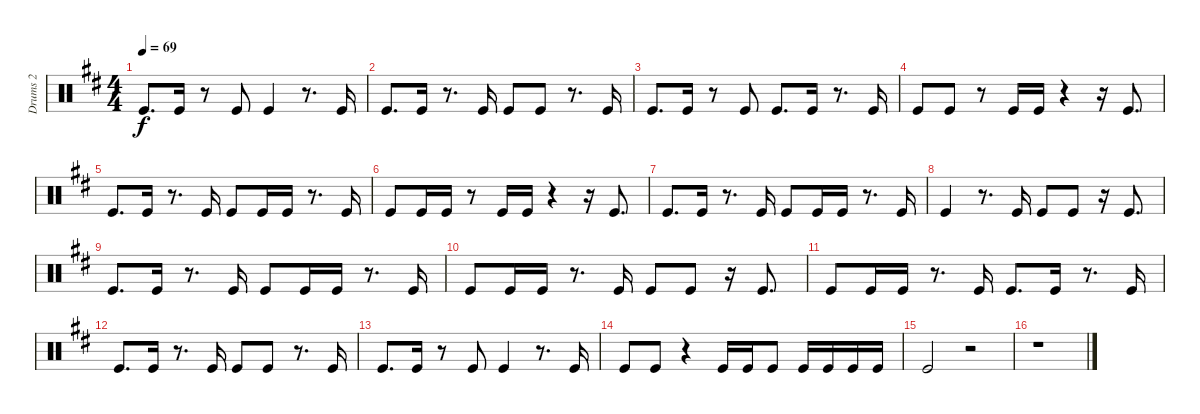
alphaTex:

\track ("Drums 2" "Drums 2") {instrument percussion}
\staff {score}
\articulation defaults
\ts (4 4)
\tempo 69
\clef neutral
\ks d "Kick (hit)".8{d dy f} "Kick (hit)".16
r.8 "Kick (hit)".8 "Kick (hit)".4 r.8{d} "Kick (hit)".16 |
"Kick (hit)".8{d} "Kick (hit)".16 r.8{d} "Kick (hit)".16 "Kick (hit)".8 "Kick (hit)".8 r.8{d} "Kick (hit)".16 |
"Kick (hit)".8{d} "Kick (hit)".16 r.8 "Kick (hit)".8 "Kick (hit)".8{d} "Kick (hit)".16 r.8{d} "Kick (hit)".16 |
"Kick (hit)".8 "Kick (hit)".8 r.8 "Kick (hit)".16 "Kick (hit)".16 r.4 r.16 "Kick (hit)".8{d} |
"Kick (hit)".8{d} "Kick (hit)".16 r.8{d} "Kick (hit)".16 "Kick (hit)".8 "Kick (hit)".16 "Kick (hit)".16 r.8{d} "Kick (hit)".16 |
"Kick (hit)".8 "Kick (hit)".16 "Kick (hit)".16 r.8 "Kick (hit)".16 "Kick (hit)".16 r.4 r.16 "Kick (hit)".8{d} |
"Kick (hit)".8{d} "Kick (hit)".16 r.8{d} "Kick (hit)".16 "Kick (hit)".8 "Kick (hit)".16 "Kick (hit)".16 r.8{d} "Kick (hit)".16 |
"Kick (hit)".4 r.8{d} "Kick (hit)".16 "Kick (hit)".8 "Kick (hit)".8 r.16 "Kick (hit)".8{d} |
"Kick (hit)".8{d} "Kick (hit)".16 r.8{d} "Kick (hit)".16 "Kick (hit)".8 "Kick (hit)".16 "Kick (hit)".16 r.8{d} "Kick (hit)".16 |
"Kick (hit)".8 "Kick (hit)".16 "Kick (hit)".16 r.8{d} "Kick (hit)".16 "Kick (hit)".8 "Kick (hit)".8 r.16 "Kick (hit)".8{d} |
"Kick (hit)".8 "Kick (hit)".16 "Kick (hit)".16 r.8{d} "Kick (hit)".16 "Kick (hit)".8{d} "Kick (hit)".16 r.8{d} "Kick (hit)".16 |
"Kick (hit)".8{d} "Kick (hit)".16 r.8{d} "Kick (hit)".16 "Kick (hit)".8 "Kick (hit)".8 r.8{d} "Kick (hit)".16 |
"Kick (hit)".8{d} "Kick (hit)".16 r.8 "Kick (hit)".8 "Kick (hit)".4 r.8{d} "Kick (hit)".16 |
"Kick (hit)".8 "Kick (hit)".8 r.4 "Kick (hit)".16 "Kick (hit)".16 "Kick (hit)".8 "Kick (hit)".16 "Kick (hit)".16 "Kick (hit)".16 "Kick (hit)".16 |
"Kick (hit)".2 r.2 |
r.1
